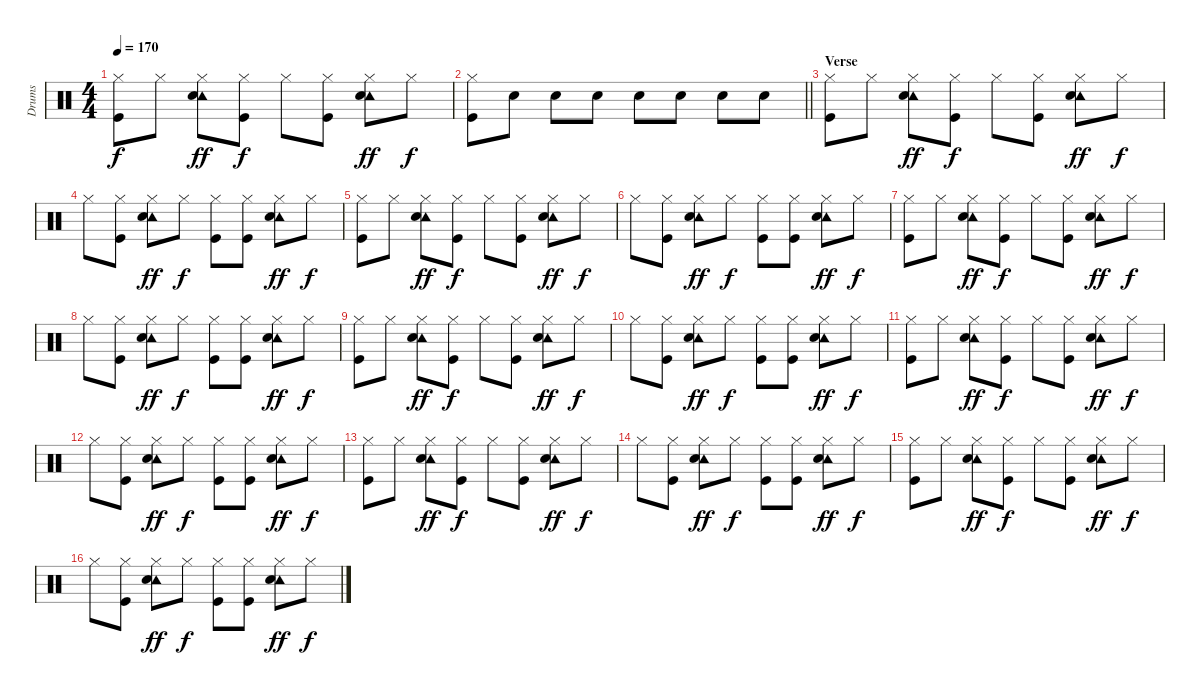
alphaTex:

\track ("Drums" "Drums") {instrument percussion}
\staff {score}
\articulation defaults
\ts (4 4)
\tempo 170
\clef neutral
\ks c
("Hi-Hat (closed)" "Kick (hit)").8{dy f} "Hi-Hat (closed)".8 ("Tambourine (hit)" "Hi-Hat (closed)" "Snare (hit) 2").8{dy ff} ("Hi-Hat (closed)" "Kick (hit)").8{dy f} "Hi-Hat (closed)".8 ("Hi-Hat (closed)" "Kick (hit)").8 ("Tambourine (hit)" "Hi-Hat (closed)" "Snare (hit) 2").8{dy ff} "Hi-Hat (closed)".8{dy f} |
\barLineRight lightlight
("Hi-Hat (closed)" "Kick (hit)").8 "Snare (hit) 2".8 "Snare (hit) 2".8 "Snare (hit) 2".8 "Snare (hit) 2".8 "Snare (hit) 2".8 "Snare (hit) 2".8 "Snare (hit) 2".8 |
\section ("" "Verse")
("Hi-Hat (closed)" "Kick (hit)").8 "Hi-Hat (closed)".8 ("Tambourine (hit)" "Hi-Hat (closed)" "Snare (hit) 2").8{dy ff} ("Hi-Hat (closed)" "Kick (hit)").8{dy f} "Hi-Hat (closed)".8 ("Hi-Hat (closed)" "Kick (hit)").8 ("Tambourine (hit)" "Hi-Hat (closed)" "Snare (hit) 2").8{dy ff} "Hi-Hat (closed)".8{dy f} |
"Hi-Hat (closed)".8 ("Hi-Hat (closed)" "Kick (hit)").8 ("Tambourine (hit)" "Hi-Hat (closed)" "Snare (hit) 2").8{dy ff} "Hi-Hat (closed)".8{dy f} ("Hi-Hat (closed)" "Kick (hit)").8 ("Hi-Hat (closed)" "Kick (hit)").8 ("Tambourine (hit)" "Hi-Hat (closed)" "Snare (hit) 2").8{dy ff} "Hi-Hat (closed)".8{dy f} |
("Hi-Hat (closed)" "Kick (hit)").8 "Hi-Hat (closed)".8 ("Tambourine (hit)" "Hi-Hat (closed)" "Snare (hit) 2").8{dy ff} ("Hi-Hat (closed)" "Kick (hit)").8{dy f} "Hi-Hat (closed)".8 ("Hi-Hat (closed)" "Kick (hit)").8 ("Tambourine (hit)" "Hi-Hat (closed)" "Snare (hit) 2").8{dy ff} "Hi-Hat (closed)".8{dy f} |
"Hi-Hat (closed)".8 ("Hi-Hat (closed)" "Kick (hit)").8 ("Tambourine (hit)" "Hi-Hat (closed)" "Snare (hit) 2").8{dy ff} "Hi-Hat (closed)".8{dy f} ("Hi-Hat (closed)" "Kick (hit)").8 ("Hi-Hat (closed)" "Kick (hit)").8 ("Tambourine (hit)" "Hi-Hat (closed)" "Snare (hit) 2").8{dy ff} "Hi-Hat (closed)".8{dy f} |
("Hi-Hat (closed)" "Kick (hit)").8 "Hi-Hat (closed)".8 ("Tambourine (hit)" "Hi-Hat (closed)" "Snare (hit) 2").8{dy ff} ("Hi-Hat (closed)" "Kick (hit)").8{dy f} "Hi-Hat (closed)".8 ("Hi-Hat (closed)" "Kick (hit)").8 ("Tambourine (hit)" "Hi-Hat (closed)" "Snare (hit) 2").8{dy ff} "Hi-Hat (closed)".8{dy f} |
"Hi-Hat (closed)".8 ("Hi-Hat (closed)" "Kick (hit)").8 ("Tambourine (hit)" "Hi-Hat (closed)" "Snare (hit) 2").8{dy ff} "Hi-Hat (closed)".8{dy f} ("Hi-Hat (closed)" "Kick (hit)").8 ("Hi-Hat (closed)" "Kick (hit)").8 ("Tambourine (hit)" "Hi-Hat (closed)" "Snare (hit) 2").8{dy ff} "Hi-Hat (closed)".8{dy f} |
("Hi-Hat (closed)" "Kick (hit)").8 "Hi-Hat (closed)".8 ("Tambourine (hit)" "Hi-Hat (closed)" "Snare (hit) 2").8{dy ff} ("Hi-Hat (closed)" "Kick (hit)").8{dy f} "Hi-Hat (closed)".8 ("Hi-Hat (closed)" "Kick (hit)").8 ("Tambourine (hit)" "Hi-Hat (closed)" "Snare (hit) 2").8{dy ff} "Hi-Hat (closed)".8{dy f} |
"Hi-Hat (closed)".8 ("Hi-Hat (closed)" "Kick (hit)").8 ("Tambourine (hit)" "Hi-Hat (closed)" "Snare (hit) 2").8{dy ff} "Hi-Hat (closed)".8{dy f} ("Hi-Hat (closed)" "Kick (hit)").8 ("Hi-Hat (closed)" "Kick (hit)").8 ("Tambourine (hit)" "Hi-Hat (closed)" "Snare (hit) 2").8{dy ff} "Hi-Hat (closed)".8{dy f} |
("Hi-Hat (closed)" "Kick (hit)").8 "Hi-Hat (closed)".8 ("Tambourine (hit)" "Hi-Hat (closed)" "Snare (hit) 2").8{dy ff} ("Hi-Hat (closed)" "Kick (hit)").8{dy f} "Hi-Hat (closed)".8 ("Hi-Hat (closed)" "Kick (hit)").8 ("Tambourine (hit)" "Hi-Hat (closed)" "Snare (hit) 2").8{dy ff} "Hi-Hat (closed)".8{dy f} |
"Hi-Hat (closed)".8 ("Hi-Hat (closed)" "Kick (hit)").8 ("Tambourine (hit)" "Hi-Hat (closed)" "Snare (hit) 2").8{dy ff} "Hi-Hat (closed)".8{dy f} ("Hi-Hat (closed)" "Kick (hit)").8 ("Hi-Hat (closed)" "Kick (hit)").8 ("Tambourine (hit)" "Hi-Hat (closed)" "Snare (hit) 2").8{dy ff} "Hi-Hat (closed)".8{dy f} |
("Hi-Hat (closed)" "Kick (hit)").8 "Hi-Hat (closed)".8 ("Tambourine (hit)" "Hi-Hat (closed)" "Snare (hit) 2").8{dy ff} ("Hi-Hat (closed)" "Kick (hit)").8{dy f} "Hi-Hat (closed)".8 ("Hi-Hat (closed)" "Kick (hit)").8 ("Tambourine (hit)" "Hi-Hat (closed)" "Snare (hit) 2").8{dy ff} "Hi-Hat (closed)".8{dy f} |
"Hi-Hat (closed)".8 ("Hi-Hat (closed)" "Kick (hit)").8 ("Tambourine (hit)" "Hi-Hat (closed)" "Snare (hit) 2").8{dy ff} "Hi-Hat (closed)".8{dy f} ("Hi-Hat (closed)" "Kick (hit)").8 ("Hi-Hat (closed)" "Kick (hit)").8 ("Tambourine (hit)" "Hi-Hat (closed)" "Snare (hit) 2").8{dy ff} "Hi-Hat (closed)".8{dy f} |
("Hi-Hat (closed)" "Kick (hit)").8 "Hi-Hat (closed)".8 ("Tambourine (hit)" "Hi-Hat (closed)" "Snare (hit) 2").8{dy ff} ("Hi-Hat (closed)" "Kick (hit)").8{dy f} "Hi-Hat (closed)".8 ("Hi-Hat (closed)" "Kick (hit)").8 ("Tambourine (hit)" "Hi-Hat (closed)" "Snare (hit) 2").8{dy ff} "Hi-Hat (closed)".8{dy f} |
"Hi-Hat (closed)".8 ("Hi-Hat (closed)" "Kick (hit)").8 ("Tambourine (hit)" "Hi-Hat (closed)" "Snare (hit) 2").8{dy ff} "Hi-Hat (closed)".8{dy f} ("Hi-Hat (closed)" "Kick (hit)").8 ("Hi-Hat (closed)" "Kick (hit)").8 ("Tambourine (hit)" "Hi-Hat (closed)" "Snare (hit) 2").8{dy ff} "Hi-Hat (closed)".8{dy f}
